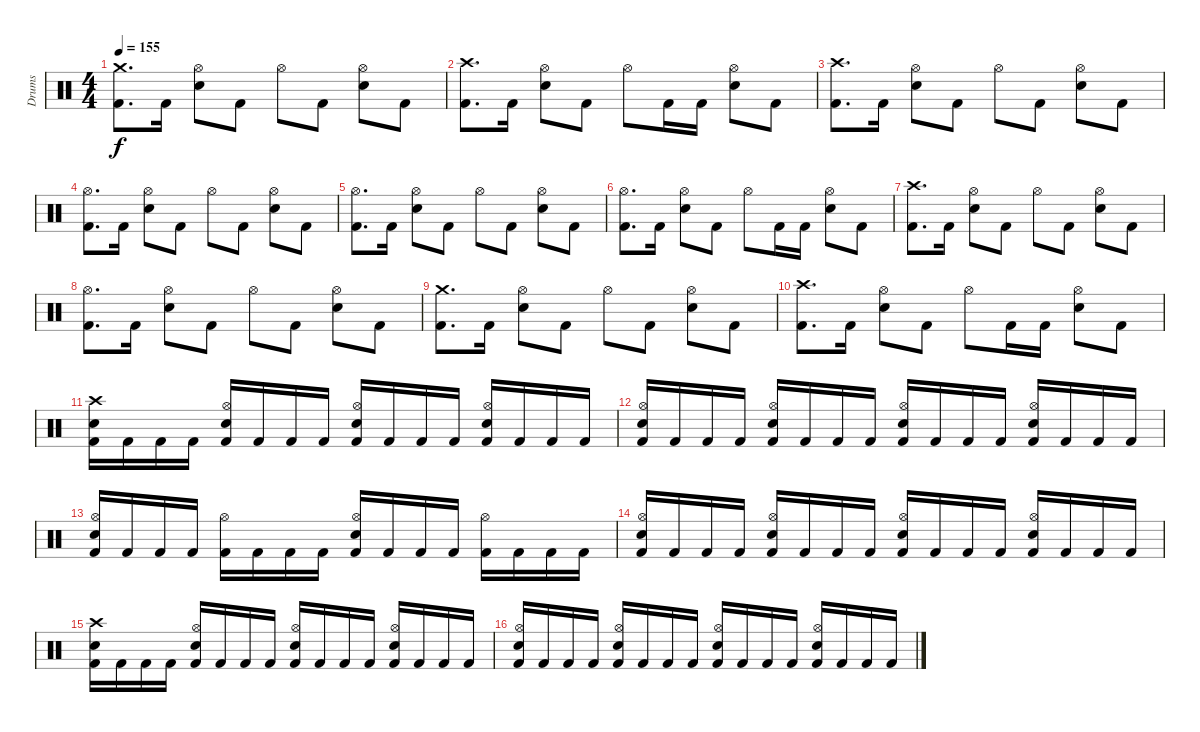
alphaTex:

\track ("Drums" "Drums") {instrument percussion}
\staff {score}
\articulation defaults
\ts (4 4)
\tempo 155
\clef neutral
\ks c
("Crash medium (hit)" "Kick (hit) 2").8{d dy f} "Kick (hit) 2".16 ("Hi-Hat (open)" "Snare (hit) 2").8 "Kick (hit) 2".8 "Hi-Hat (open)".8 "Kick (hit) 2".8 ("Hi-Hat (open)" "Snare (hit) 2").8 "Kick (hit) 2".8 |
("Crash high (hit)" "Kick (hit) 2").8{d} "Kick (hit) 2".16 ("Hi-Hat (open)" "Snare (hit) 2").8 "Kick (hit) 2".8 "Hi-Hat (open)".8 "Kick (hit) 2".16 "Kick (hit) 2".16 ("Hi-Hat (open)" "Snare (hit) 2").8 "Kick (hit) 2".8 |
("Crash high (hit)" "Kick (hit) 2").8{d} "Kick (hit) 2".16 ("Hi-Hat (open)" "Snare (hit) 2").8 "Kick (hit) 2".8 "Hi-Hat (open)".8 "Kick (hit) 2".8 ("Hi-Hat (open)" "Snare (hit) 2").8 "Kick (hit) 2".8 |
("Hi-Hat (open)" "Kick (hit) 2").8{d} "Kick (hit) 2".16 ("Hi-Hat (open)" "Snare (hit) 2").8 "Kick (hit) 2".8 "Hi-Hat (open)".8 "Kick (hit) 2".8 ("Hi-Hat (open)" "Snare (hit) 2").8 "Kick (hit) 2".8 |
("Hi-Hat (open)" "Kick (hit) 2").8{d} "Kick (hit) 2".16 ("Hi-Hat (open)" "Snare (hit) 2").8 "Kick (hit) 2".8 "Hi-Hat (open)".8 "Kick (hit) 2".8 ("Hi-Hat (open)" "Snare (hit) 2").8 "Kick (hit) 2".8 |
("Hi-Hat (open)" "Kick (hit) 2").8{d} "Kick (hit) 2".16 ("Hi-Hat (open)" "Snare (hit) 2").8 "Kick (hit) 2".8 "Hi-Hat (open)".8 "Kick (hit) 2".16 "Kick (hit) 2".16 ("Hi-Hat (open)" "Snare (hit) 2").8 "Kick (hit) 2".8 |
("Crash high (hit)" "Kick (hit) 2").8{d} "Kick (hit) 2".16 ("Hi-Hat (open)" "Snare (hit) 2").8 "Kick (hit) 2".8 "Hi-Hat (open)".8 "Kick (hit) 2".8 ("Hi-Hat (open)" "Snare (hit) 2").8 "Kick (hit) 2".8 |
("Hi-Hat (open)" "Kick (hit) 2").8{d} "Kick (hit) 2".16 ("Hi-Hat (open)" "Snare (hit) 2").8 "Kick (hit) 2".8 "Hi-Hat (open)".8 "Kick (hit) 2".8 ("Hi-Hat (open)" "Snare (hit) 2").8 "Kick (hit) 2".8 |
("Crash medium (hit)" "Kick (hit) 2").8{d} "Kick (hit) 2".16 ("Hi-Hat (open)" "Snare (hit) 2").8 "Kick (hit) 2".8 "Hi-Hat (open)".8 "Kick (hit) 2".8 ("Hi-Hat (open)" "Snare (hit) 2").8 "Kick (hit) 2".8 |
("Crash high (hit)" "Kick (hit) 2").8{d} "Kick (hit) 2".16 ("Hi-Hat (open)" "Snare (hit) 2").8 "Kick (hit) 2".8 "Hi-Hat (open)".8 "Kick (hit) 2".16 "Kick (hit) 2".16 ("Hi-Hat (open)" "Snare (hit) 2").8 "Kick (hit) 2".8 |
("Crash high (hit)" "Snare (hit) 2" "Kick (hit) 2").16 "Kick (hit) 2".16 "Kick (hit) 2".16 "Kick (hit) 2".16 ("Hi-Hat (open)" "Snare (hit) 2" "Kick (hit) 2").16 "Kick (hit) 2".16 "Kick (hit) 2".16 "Kick (hit) 2".16 ("Hi-Hat (open)" "Snare (hit) 2" "Kick (hit) 2").16 "Kick (hit) 2".16 "Kick (hit) 2".16 "Kick (hit) 2".16 ("Hi-Hat (open)" "Snare (hit) 2" "Kick (hit) 2").16 "Kick (hit) 2".16 "Kick (hit) 2".16 "Kick (hit) 2".16 |
("Hi-Hat (open)" "Snare (hit) 2" "Kick (hit) 2").16 "Kick (hit) 2".16 "Kick (hit) 2".16 "Kick (hit) 2".16 ("Hi-Hat (open)" "Snare (hit) 2" "Kick (hit) 2").16 "Kick (hit) 2".16 "Kick (hit) 2".16 "Kick (hit) 2".16 ("Hi-Hat (open)" "Snare (hit) 2" "Kick (hit) 2").16 "Kick (hit) 2".16 "Kick (hit) 2".16 "Kick (hit) 2".16 ("Hi-Hat (open)" "Snare (hit) 2" "Kick (hit) 2").16 "Kick (hit) 2".16 "Kick (hit) 2".16 "Kick (hit) 2".16 |
("Hi-Hat (open)" "Snare (hit) 2" "Kick (hit) 2").16 "Kick (hit) 2".16 "Kick (hit) 2".16 "Kick (hit) 2".16 ("Hi-Hat (open)" "Kick (hit) 2").16 "Kick (hit) 2".16 "Kick (hit) 2".16 "Kick (hit) 2".16 ("Hi-Hat (open)" "Snare (hit) 2" "Kick (hit) 2").16 "Kick (hit) 2".16 "Kick (hit) 2".16 "Kick (hit) 2".16 ("Hi-Hat (open)" "Kick (hit) 2").16 "Kick (hit) 2".16 "Kick (hit) 2".16 "Kick (hit) 2".16 |
("Hi-Hat (open)" "Snare (hit) 2" "Kick (hit) 2").16 "Kick (hit) 2".16 "Kick (hit) 2".16 "Kick (hit) 2".16 ("Hi-Hat (open)" "Snare (hit) 2" "Kick (hit) 2").16 "Kick (hit) 2".16 "Kick (hit) 2".16 "Kick (hit) 2".16 ("Hi-Hat (open)" "Snare (hit) 2" "Kick (hit) 2").16 "Kick (hit) 2".16 "Kick (hit) 2".16 "Kick (hit) 2".16 ("Hi-Hat (open)" "Snare (hit) 2" "Kick (hit) 2").16 "Kick (hit) 2".16 "Kick (hit) 2".16 "Kick (hit) 2".16 |
("Crash high (hit)" "Snare (hit) 2" "Kick (hit) 2").16 "Kick (hit) 2".16 "Kick (hit) 2".16 "Kick (hit) 2".16 ("Hi-Hat (open)" "Snare (hit) 2" "Kick (hit) 2").16 "Kick (hit) 2".16 "Kick (hit) 2".16 "Kick (hit) 2".16 ("Hi-Hat (open)" "Snare (hit) 2" "Kick (hit) 2").16 "Kick (hit) 2".16 "Kick (hit) 2".16 "Kick (hit) 2".16 ("Hi-Hat (open)" "Snare (hit) 2" "Kick (hit) 2").16 "Kick (hit) 2".16 "Kick (hit) 2".16 "Kick (hit) 2".16 |
("Hi-Hat (open)" "Snare (hit) 2" "Kick (hit) 2").16 "Kick (hit) 2".16 "Kick (hit) 2".16 "Kick (hit) 2".16 ("Hi-Hat (open)" "Snare (hit) 2" "Kick (hit) 2").16 "Kick (hit) 2".16 "Kick (hit) 2".16 "Kick (hit) 2".16 ("Hi-Hat (open)" "Snare (hit) 2" "Kick (hit) 2").16 "Kick (hit) 2".16 "Kick (hit) 2".16 "Kick (hit) 2".16 ("Hi-Hat (open)" "Snare (hit) 2" "Kick (hit) 2").16 "Kick (hit) 2".16 "Kick (hit) 2".16 "Kick (hit) 2".16
